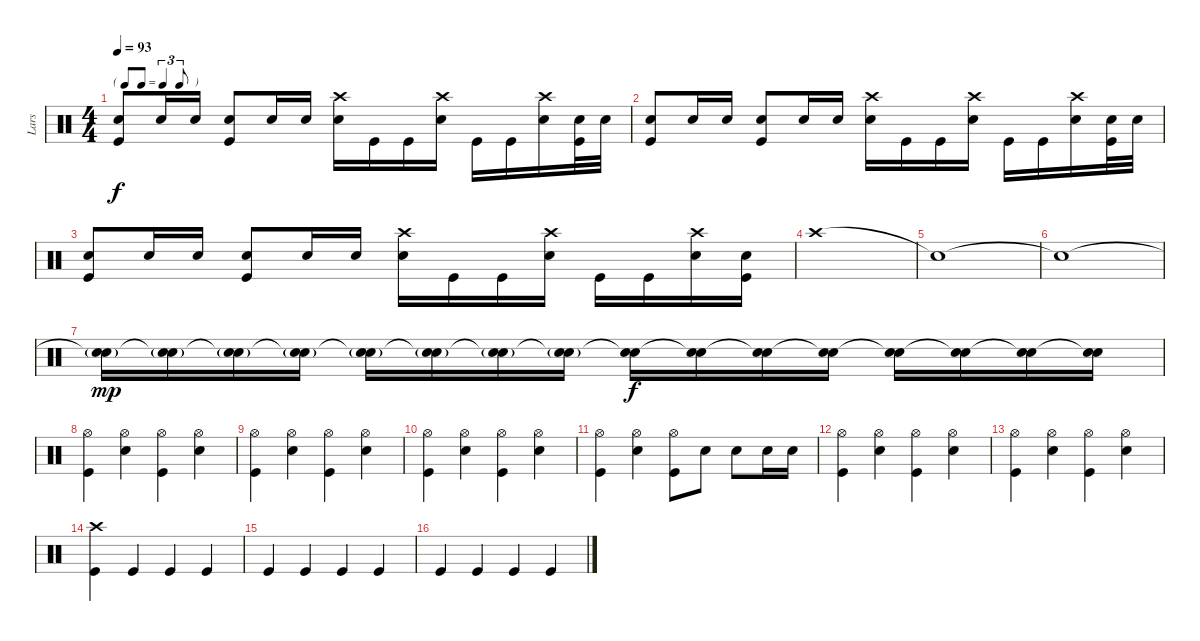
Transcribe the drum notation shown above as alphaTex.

\track ("Lars" "Lars") {instrument percussion}
\staff {score}
\articulation defaults
\ts (4 4)
\tf triplet8th
\tempo 93
\clef neutral
\ks c
("Snare (hit) 2" "Kick (hit)").8{dy f} "Snare (hit) 2".16 "Snare (hit) 2".16 ("Snare (hit) 2" "Kick (hit)").8 "Snare (hit) 2".16 "Snare (hit) 2".16 ("Crash high (hit)" "Snare (hit) 2").16 "Kick (hit)".16 "Kick (hit)".16 ("Crash high (hit)" "Snare (hit) 2").16 "Kick (hit)".16 "Kick (hit)".16 ("Crash high (hit)" "Snare (hit) 2").16 ("Snare (hit) 2" "Kick (hit)").32 "Snare (hit) 2".32 |
("Snare (hit) 2" "Kick (hit)").8 "Snare (hit) 2".16 "Snare (hit) 2".16 ("Snare (hit) 2" "Kick (hit)").8 "Snare (hit) 2".16 "Snare (hit) 2".16 ("Crash high (hit)" "Snare (hit) 2").16 "Kick (hit)".16 "Kick (hit)".16 ("Crash high (hit)" "Snare (hit) 2").16 "Kick (hit)".16 "Kick (hit)".16 ("Crash high (hit)" "Snare (hit) 2").16 ("Snare (hit) 2" "Kick (hit)").32 "Snare (hit) 2".32 |
("Snare (hit) 2" "Kick (hit)").8 "Snare (hit) 2".16 "Snare (hit) 2".16 ("Snare (hit) 2" "Kick (hit)").8 "Snare (hit) 2".16 "Snare (hit) 2".16 ("Crash high (hit)" "Snare (hit) 2").16 "Kick (hit)".16 "Kick (hit)".16 ("Crash high (hit)" "Snare (hit) 2").16 "Kick (hit)".16 "Kick (hit)".16 ("Crash high (hit)" "Snare (hit) 2").16 ("Snare (hit) 2" "Kick (hit)").16 |
"Crash high (hit)".1 |
"Snare (hit)"{t}.1 |
"Snare (hit)"{t}.1 |
("Snare (hit)"{t} "Snare (hit) 2"{g}).16{dy mp} ("Snare (hit)"{t} "Snare (hit) 2"{g}).16 ("Snare (hit)"{t} "Snare (hit) 2"{g}).16 ("Snare (hit)"{t} "Snare (hit) 2"{g}).16 ("Snare (hit)"{t} "Snare (hit) 2"{g}).16 ("Snare (hit)"{t} "Snare (hit) 2"{g}).16 ("Snare (hit)"{t} "Snare (hit) 2"{g}).16 ("Snare (hit)"{t} "Snare (hit) 2"{g}).16 ("Snare (hit)"{t} "Snare (hit) 2").16{dy f} ("Snare (hit)"{t} "Snare (hit) 2").16 ("Snare (hit)"{t} "Snare (hit) 2").16 ("Snare (hit)"{t} "Snare (hit) 2").16 ("Snare (hit)"{t} "Snare (hit) 2").16 ("Snare (hit)"{t} "Snare (hit) 2").16 ("Snare (hit)"{t} "Snare (hit) 2").16 ("Snare (hit)"{t} "Snare (hit) 2").16 |
("Hi-Hat (open)" "Kick (hit)").4 ("Hi-Hat (open)" "Snare (hit) 2").4 ("Hi-Hat (open)" "Kick (hit)").4 ("Hi-Hat (open)" "Snare (hit) 2").4 |
("Hi-Hat (open)" "Kick (hit)").4 ("Hi-Hat (open)" "Snare (hit) 2").4 ("Hi-Hat (open)" "Kick (hit)").4 ("Hi-Hat (open)" "Snare (hit) 2").4 |
("Hi-Hat (open)" "Kick (hit)").4 ("Hi-Hat (open)" "Snare (hit) 2").4 ("Hi-Hat (open)" "Kick (hit)").4 ("Hi-Hat (open)" "Snare (hit) 2").4 |
("Hi-Hat (open)" "Kick (hit)").4 ("Hi-Hat (open)" "Snare (hit) 2").4 ("Hi-Hat (open)" "Kick (hit)").8 "Snare (hit) 2".8 "Snare (hit) 2".8 "Snare (hit) 2".16 "Snare (hit) 2".16 |
("Hi-Hat (open)" "Kick (hit)").4 ("Hi-Hat (open)" "Snare (hit) 2").4 ("Hi-Hat (open)" "Kick (hit)").4 ("Hi-Hat (open)" "Snare (hit) 2").4 |
("Hi-Hat (open)" "Kick (hit)").4 ("Hi-Hat (open)" "Snare (hit) 2").4 ("Hi-Hat (open)" "Kick (hit)").4 ("Hi-Hat (open)" "Snare (hit) 2").4 |
("Crash high (hit)" "Kick (hit)").4 "Kick (hit)".4 "Kick (hit)".4 "Kick (hit)".4 |
"Kick (hit)".4 "Kick (hit)".4 "Kick (hit)".4 "Kick (hit)".4 |
"Kick (hit)".4 "Kick (hit)".4 "Kick (hit)".4 "Kick (hit)".4
